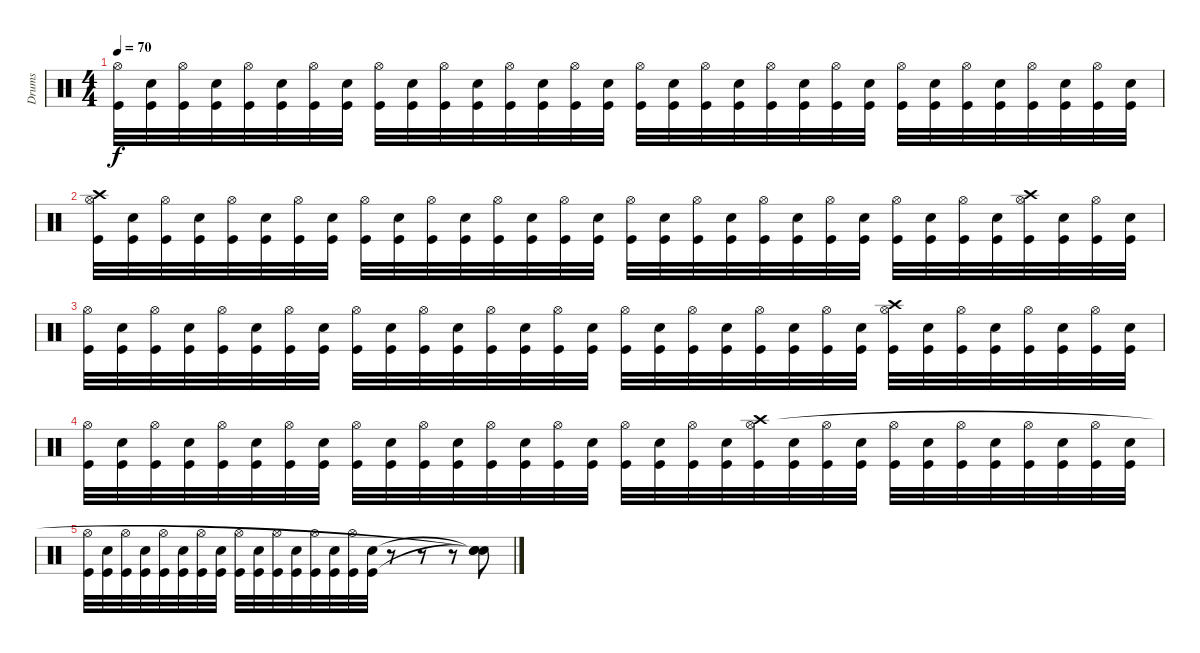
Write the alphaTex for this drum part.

\track ("Drums" "Drums") {instrument percussion}
\staff {score}
\articulation defaults
\ts (4 4)
\tempo 70
\clef neutral
\ks c
("Kick (hit)" "Hi-Hat (open)").32{dy f} ("Kick (hit)" "Electric Snare (hit)").32 ("Kick (hit)" "Hi-Hat (open)").32 ("Kick (hit)" "Electric Snare (hit)").32 ("Kick (hit)" "Hi-Hat (open)").32 ("Kick (hit)" "Electric Snare (hit)").32 ("Kick (hit)" "Hi-Hat (open)").32 ("Kick (hit)" "Electric Snare (hit)").32 ("Kick (hit)" "Hi-Hat (open)").32 ("Kick (hit)" "Electric Snare (hit)").32 ("Kick (hit)" "Hi-Hat (open)").32 ("Kick (hit)" "Electric Snare (hit)").32 ("Kick (hit)" "Hi-Hat (open)").32 ("Kick (hit)" "Electric Snare (hit)").32 ("Kick (hit)" "Hi-Hat (open)").32 ("Kick (hit)" "Electric Snare (hit)").32 ("Kick (hit)" "Hi-Hat (open)").32 ("Kick (hit)" "Electric Snare (hit)").32 ("Kick (hit)" "Hi-Hat (open)").32 ("Kick (hit)" "Electric Snare (hit)").32 ("Kick (hit)" "Hi-Hat (open)").32 ("Kick (hit)" "Electric Snare (hit)").32 ("Kick (hit)" "Hi-Hat (open)").32 ("Kick (hit)" "Electric Snare (hit)").32 ("Kick (hit)" "Hi-Hat (open)").32 ("Kick (hit)" "Electric Snare (hit)").32 ("Kick (hit)" "Hi-Hat (open)").32 ("Kick (hit)" "Electric Snare (hit)").32 ("Kick (hit)" "Hi-Hat (open)").32 ("Kick (hit)" "Electric Snare (hit)").32 ("Kick (hit)" "Hi-Hat (open)").32 ("Kick (hit)" "Electric Snare (hit)").32 |
("Kick (hit)" "Crash high (hit)" "Hi-Hat (open)").32 ("Kick (hit)" "Electric Snare (hit)").32 ("Kick (hit)" "Hi-Hat (open)").32 ("Kick (hit)" "Electric Snare (hit)").32 ("Kick (hit)" "Hi-Hat (open)").32 ("Kick (hit)" "Electric Snare (hit)").32 ("Kick (hit)" "Hi-Hat (open)").32 ("Kick (hit)" "Electric Snare (hit)").32 ("Kick (hit)" "Hi-Hat (open)").32 ("Kick (hit)" "Electric Snare (hit)").32 ("Kick (hit)" "Hi-Hat (open)").32 ("Kick (hit)" "Electric Snare (hit)").32 ("Kick (hit)" "Hi-Hat (open)").32 ("Kick (hit)" "Electric Snare (hit)").32 ("Kick (hit)" "Hi-Hat (open)").32 ("Kick (hit)" "Electric Snare (hit)").32 ("Kick (hit)" "Hi-Hat (open)").32 ("Kick (hit)" "Electric Snare (hit)").32 ("Kick (hit)" "Hi-Hat (open)").32 ("Kick (hit)" "Electric Snare (hit)").32 ("Kick (hit)" "Hi-Hat (open)").32 ("Kick (hit)" "Electric Snare (hit)").32 ("Kick (hit)" "Hi-Hat (open)").32 ("Kick (hit)" "Electric Snare (hit)").32 ("Kick (hit)" "Hi-Hat (open)").32 ("Kick (hit)" "Electric Snare (hit)").32 ("Kick (hit)" "Hi-Hat (open)").32 ("Kick (hit)" "Electric Snare (hit)").32 ("Kick (hit)" "Crash high (hit)" "Hi-Hat (open)").32 ("Kick (hit)" "Electric Snare (hit)").32 ("Kick (hit)" "Hi-Hat (open)").32 ("Kick (hit)" "Electric Snare (hit)").32 |
("Kick (hit)" "Hi-Hat (open)").32 ("Kick (hit)" "Electric Snare (hit)").32 ("Kick (hit)" "Hi-Hat (open)").32 ("Kick (hit)" "Electric Snare (hit)").32 ("Kick (hit)" "Hi-Hat (open)").32 ("Kick (hit)" "Electric Snare (hit)").32 ("Kick (hit)" "Hi-Hat (open)").32 ("Kick (hit)" "Electric Snare (hit)").32 ("Kick (hit)" "Hi-Hat (open)").32 ("Kick (hit)" "Electric Snare (hit)").32 ("Kick (hit)" "Hi-Hat (open)").32 ("Kick (hit)" "Electric Snare (hit)").32 ("Kick (hit)" "Hi-Hat (open)").32 ("Kick (hit)" "Electric Snare (hit)").32 ("Kick (hit)" "Hi-Hat (open)").32 ("Kick (hit)" "Electric Snare (hit)").32 ("Kick (hit)" "Hi-Hat (open)").32 ("Kick (hit)" "Electric Snare (hit)").32 ("Kick (hit)" "Hi-Hat (open)").32 ("Kick (hit)" "Electric Snare (hit)").32 ("Kick (hit)" "Hi-Hat (open)").32 ("Kick (hit)" "Electric Snare (hit)").32 ("Kick (hit)" "Hi-Hat (open)").32 ("Kick (hit)" "Electric Snare (hit)").32 ("Kick (hit)" "Crash high (hit)" "Hi-Hat (open)").32 ("Kick (hit)" "Electric Snare (hit)").32 ("Kick (hit)" "Hi-Hat (open)").32 ("Kick (hit)" "Electric Snare (hit)").32 ("Kick (hit)" "Hi-Hat (open)").32 ("Kick (hit)" "Electric Snare (hit)").32 ("Kick (hit)" "Hi-Hat (open)").32 ("Kick (hit)" "Electric Snare (hit)").32 |
("Kick (hit)" "Hi-Hat (open)").32 ("Kick (hit)" "Electric Snare (hit)").32 ("Kick (hit)" "Hi-Hat (open)").32 ("Kick (hit)" "Electric Snare (hit)").32 ("Kick (hit)" "Hi-Hat (open)").32 ("Kick (hit)" "Electric Snare (hit)").32 ("Kick (hit)" "Hi-Hat (open)").32 ("Kick (hit)" "Electric Snare (hit)").32 ("Kick (hit)" "Hi-Hat (open)").32 ("Kick (hit)" "Electric Snare (hit)").32 ("Kick (hit)" "Hi-Hat (open)").32 ("Kick (hit)" "Electric Snare (hit)").32 ("Kick (hit)" "Hi-Hat (open)").32 ("Kick (hit)" "Electric Snare (hit)").32 ("Kick (hit)" "Hi-Hat (open)").32 ("Kick (hit)" "Electric Snare (hit)").32 ("Kick (hit)" "Hi-Hat (open)").32 ("Kick (hit)" "Electric Snare (hit)").32 ("Kick (hit)" "Hi-Hat (open)").32 ("Kick (hit)" "Electric Snare (hit)").32 ("Kick (hit)" "Crash high (hit)" "Hi-Hat (open)").32 ("Kick (hit)" "Electric Snare (hit)").32 ("Kick (hit)" "Hi-Hat (open)").32 ("Kick (hit)" "Electric Snare (hit)").32 ("Kick (hit)" "Hi-Hat (open)").32 ("Kick (hit)" "Electric Snare (hit)").32 ("Kick (hit)" "Hi-Hat (open)").32 ("Kick (hit)" "Electric Snare (hit)").32 ("Kick (hit)" "Hi-Hat (open)").32 ("Kick (hit)" "Electric Snare (hit)").32 ("Kick (hit)" "Hi-Hat (open)").32 ("Kick (hit)" "Electric Snare (hit)").32 |
("Kick (hit)" "Hi-Hat (open)").32 ("Kick (hit)" "Electric Snare (hit)").32 ("Kick (hit)" "Hi-Hat (open)").32 ("Kick (hit)" "Electric Snare (hit)").32 ("Kick (hit)" "Hi-Hat (open)").32 ("Kick (hit)" "Electric Snare (hit)").32 ("Kick (hit)" "Hi-Hat (open)").32 ("Kick (hit)" "Electric Snare (hit)").32 ("Kick (hit)" "Hi-Hat (open)").32 ("Kick (hit)" "Electric Snare (hit)").32 ("Kick (hit)" "Hi-Hat (open)").32 ("Kick (hit)" "Electric Snare (hit)").32 ("Kick (hit)" "Hi-Hat (open)").32 ("Kick (hit)" "Electric Snare (hit)").32 ("Kick (hit)" "Hi-Hat (open)").32 ("Kick (hit)" "Electric Snare (hit)").32 r.8 r.8 r.8 ("Snare (hit)"{t} "Snare (hit)"{t} "Snare (hit)"{t}).8
